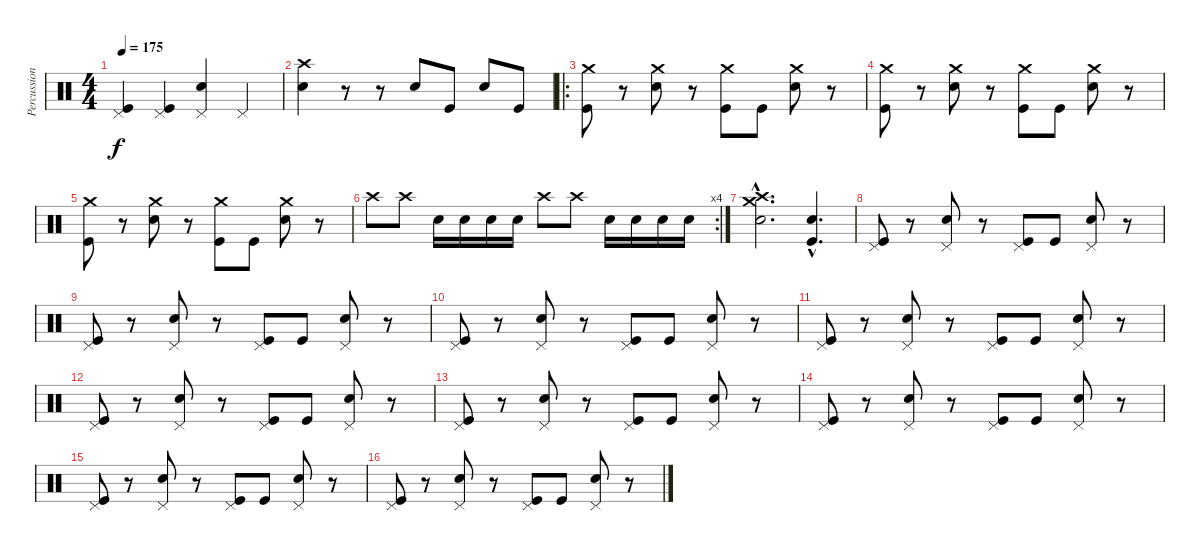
\track ("Percussion" "Percussion") {instrument percussion}
\staff {score}
\articulation defaults
\ts (4 4)
\tempo 175
\clef neutral
\ks c
("Pedal Hi-Hat (hit)" "Kick (hit)").4{dy f} ("Pedal Hi-Hat (hit)" "Kick (hit)").4 ("Pedal Hi-Hat (hit)" "Electric Snare (hit)").4 "Pedal Hi-Hat (hit)".4 |
("Crash high (hit)" "Electric Snare (hit)").4 r.8 r.8 "Electric Snare (hit)".8 "Kick (hit)".8 "Electric Snare (hit)".8 "Kick (hit)".8 |
\ro
("Crash medium (hit)" "Kick (hit)").8 r.8 ("Crash medium (hit)" "Electric Snare (hit)").8 r.8 ("Crash medium (hit)" "Kick (hit)").8 "Kick (hit)".8 ("Crash medium (hit)" "Electric Snare (hit)").8 r.8 |
("Crash medium (hit)" "Kick (hit)").8 r.8 ("Crash medium (hit)" "Electric Snare (hit)").8 r.8 ("Crash medium (hit)" "Kick (hit)").8 "Kick (hit)".8 ("Crash medium (hit)" "Electric Snare (hit)").8 r.8 |
("Crash medium (hit)" "Kick (hit)").8 r.8 ("Crash medium (hit)" "Electric Snare (hit)").8 r.8 ("Crash medium (hit)" "Kick (hit)").8 "Kick (hit)".8 ("Crash medium (hit)" "Electric Snare (hit)").8 r.8 |
\rc 4 "Crash high (hit)".8 "Crash high (hit)".8 "Electric Snare (hit)".16 "Electric Snare (hit)".16 "Electric Snare (hit)".16 "Electric Snare (hit)".16 "Crash high (hit)".8 "Crash high (hit)".8 "Electric Snare (hit)".16 "Electric Snare (hit)".16 "Electric Snare (hit)".16 "Electric Snare (hit)".16
|
("Crash high (hit)"{hac} "Crash medium (hit)"{hac} "Electric Snare (hit)"{hac}).2{d} ("Snare (hit) 2"{hac} "Kick (hit)"{hac}).4{d} |
("Pedal Hi-Hat (hit)" "Kick (hit)").8 r.8 ("Pedal Hi-Hat (hit)" "Electric Snare (hit)").8 r.8 ("Pedal Hi-Hat (hit)" "Kick (hit)").8 "Kick (hit)".8 ("Pedal Hi-Hat (hit)" "Electric Snare (hit)").8 r.8 |
("Pedal Hi-Hat (hit)" "Kick (hit)").8 r.8 ("Pedal Hi-Hat (hit)" "Electric Snare (hit)").8 r.8 ("Pedal Hi-Hat (hit)" "Kick (hit)").8 "Kick (hit)".8 ("Pedal Hi-Hat (hit)" "Electric Snare (hit)").8 r.8 |
("Pedal Hi-Hat (hit)" "Kick (hit)").8 r.8 ("Pedal Hi-Hat (hit)" "Electric Snare (hit)").8 r.8 ("Pedal Hi-Hat (hit)" "Kick (hit)").8 "Kick (hit)".8 ("Pedal Hi-Hat (hit)" "Electric Snare (hit)").8 r.8 |
("Pedal Hi-Hat (hit)" "Kick (hit)").8 r.8 ("Pedal Hi-Hat (hit)" "Electric Snare (hit)").8 r.8 ("Pedal Hi-Hat (hit)" "Kick (hit)").8 "Kick (hit)".8 ("Pedal Hi-Hat (hit)" "Electric Snare (hit)").8 r.8 |
("Pedal Hi-Hat (hit)" "Kick (hit)").8 r.8 ("Pedal Hi-Hat (hit)" "Electric Snare (hit)").8 r.8 ("Pedal Hi-Hat (hit)" "Kick (hit)").8 "Kick (hit)".8 ("Pedal Hi-Hat (hit)" "Electric Snare (hit)").8 r.8 |
("Pedal Hi-Hat (hit)" "Kick (hit)").8 r.8 ("Pedal Hi-Hat (hit)" "Electric Snare (hit)").8 r.8 ("Pedal Hi-Hat (hit)" "Kick (hit)").8 "Kick (hit)".8 ("Pedal Hi-Hat (hit)" "Electric Snare (hit)").8 r.8 |
("Pedal Hi-Hat (hit)" "Kick (hit)").8 r.8 ("Pedal Hi-Hat (hit)" "Electric Snare (hit)").8 r.8 ("Pedal Hi-Hat (hit)" "Kick (hit)").8 "Kick (hit)".8 ("Pedal Hi-Hat (hit)" "Electric Snare (hit)").8 r.8 |
("Pedal Hi-Hat (hit)" "Kick (hit)").8 r.8 ("Pedal Hi-Hat (hit)" "Electric Snare (hit)").8 r.8 ("Pedal Hi-Hat (hit)" "Kick (hit)").8 "Kick (hit)".8 ("Pedal Hi-Hat (hit)" "Electric Snare (hit)").8 r.8 |
("Pedal Hi-Hat (hit)" "Kick (hit)").8 r.8 ("Pedal Hi-Hat (hit)" "Electric Snare (hit)").8 r.8 ("Pedal Hi-Hat (hit)" "Kick (hit)").8 "Kick (hit)".8 ("Pedal Hi-Hat (hit)" "Electric Snare (hit)").8 r.8
